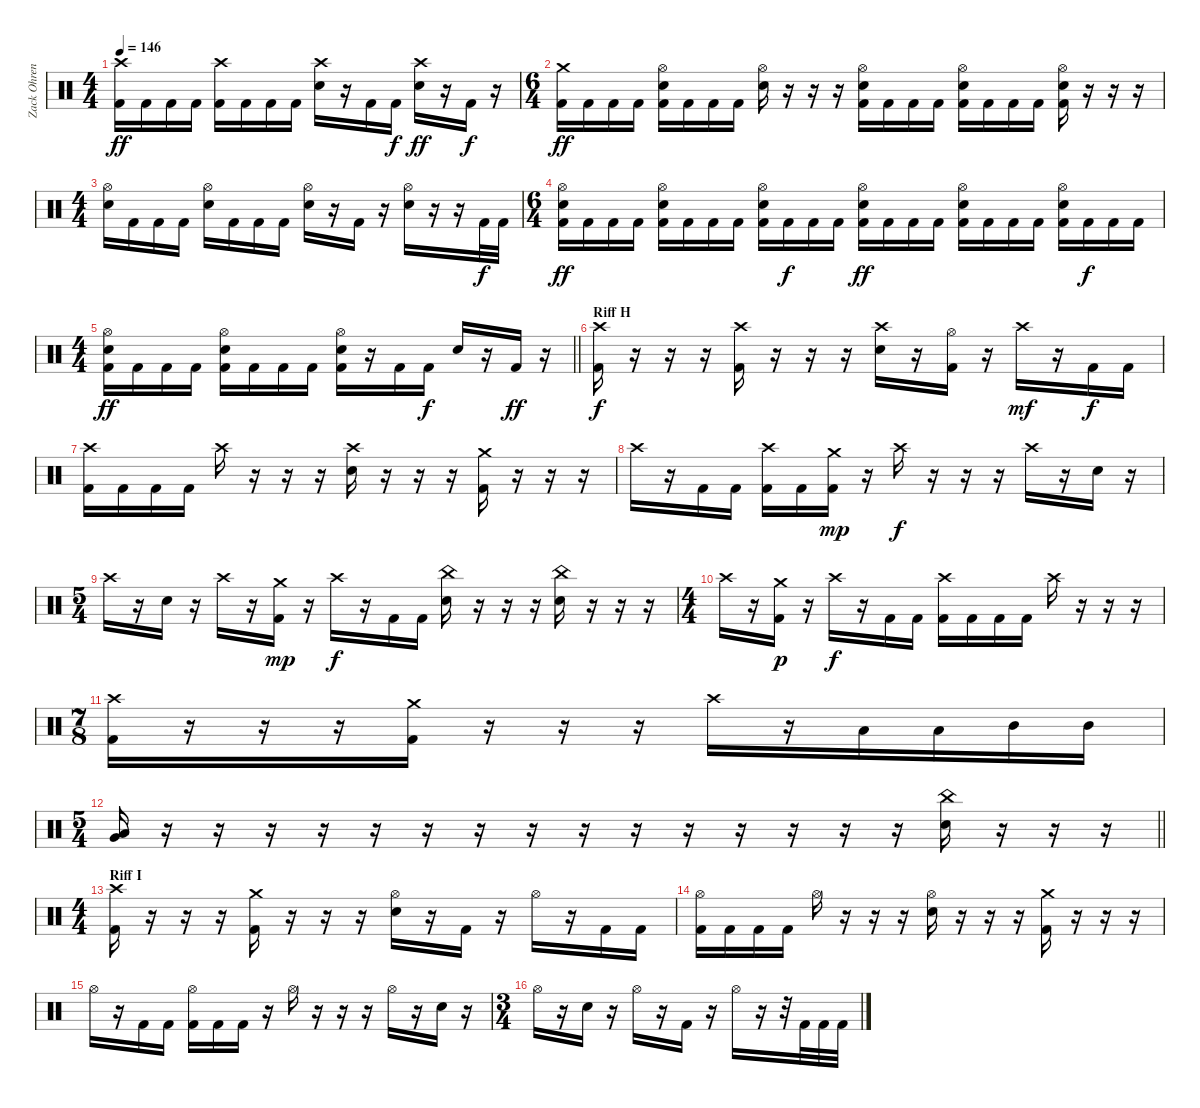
\track ("Zack Ohren" "Zack Ohren") {instrument percussion}
\staff {score}
\articulation defaults
\ts (4 4)
\tempo 146
\clef neutral
\ks c
("Crash high (hit)" "Kick (hit) 2").16{dy ff} "Kick (hit) 2".16 "Kick (hit) 2".16 "Kick (hit) 2".16 ("Crash high (hit)" "Kick (hit) 2").16 "Kick (hit) 2".16 "Kick (hit) 2".16 "Kick (hit) 2".16 ("Crash high (hit)" "Electric Snare (hit)").16 r.16 "Kick (hit) 2".16 "Kick (hit) 2".16{dy f} ("Crash high (hit)" "Electric Snare (hit)").16{dy ff} r.16 "Kick (hit) 2".16{dy f} r.16 |
\ts (6 4)
("Crash medium (hit)" "Kick (hit) 2").16{dy ff} "Kick (hit) 2".16 "Kick (hit) 2".16 "Kick (hit) 2".16 ("Hi-Hat (open)" "Electric Snare (hit)" "Kick (hit) 2").16 "Kick (hit) 2".16 "Kick (hit) 2".16 "Kick (hit) 2".16 ("Hi-Hat (open)" "Electric Snare (hit)").16 r.16 r.16 r.16 ("Hi-Hat (open)" "Electric Snare (hit)" "Kick (hit) 2").16 "Kick (hit) 2".16 "Kick (hit) 2".16 "Kick (hit) 2".16 ("Hi-Hat (open)" "Electric Snare (hit)" "Kick (hit) 2").16 "Kick (hit) 2".16 "Kick (hit) 2".16 "Kick (hit) 2".16 ("Hi-Hat (open)" "Electric Snare (hit)" "Kick (hit) 2").16 r.16 r.16 r.16 |
\ts (4 4)
("Hi-Hat (open)" "Electric Snare (hit)").16 "Kick (hit) 2".16 "Kick (hit) 2".16 "Kick (hit) 2".16 ("Hi-Hat (open)" "Electric Snare (hit)").16 "Kick (hit) 2".16 "Kick (hit) 2".16 "Kick (hit) 2".16 ("Hi-Hat (open)" "Electric Snare (hit)").16 r.16 "Kick (hit) 2".16 r.16 ("Hi-Hat (open)" "Electric Snare (hit)").16 r.16 r.16 "Kick (hit) 2".32{dy f} "Kick (hit) 2".32 |
\ts (6 4)
("Hi-Hat (open)" "Electric Snare (hit)" "Kick (hit) 2").16{dy ff} "Kick (hit) 2".16 "Kick (hit) 2".16 "Kick (hit) 2".16 ("Hi-Hat (open)" "Electric Snare (hit)" "Kick (hit) 2").16 "Kick (hit) 2".16 "Kick (hit) 2".16 "Kick (hit) 2".16 ("Hi-Hat (open)" "Electric Snare (hit)" "Kick (hit) 2").16 "Kick (hit) 2".16{dy f} "Kick (hit) 2".16 "Kick (hit) 2".16 ("Hi-Hat (open)" "Electric Snare (hit)" "Kick (hit) 2").16{dy ff} "Kick (hit) 2".16 "Kick (hit) 2".16 "Kick (hit) 2".16 ("Hi-Hat (open)" "Electric Snare (hit)" "Kick (hit) 2").16 "Kick (hit) 2".16 "Kick (hit) 2".16 "Kick (hit) 2".16 ("Hi-Hat (open)" "Electric Snare (hit)" "Kick (hit) 2").16 "Kick (hit) 2".16{dy f} "Kick (hit) 2".16 "Kick (hit) 2".16 |
\ts (4 4)
\barLineRight lightlight
("Hi-Hat (open)" "Electric Snare (hit)" "Kick (hit) 2").16{dy ff} "Kick (hit) 2".16 "Kick (hit) 2".16 "Kick (hit) 2".16 ("Hi-Hat (open)" "Electric Snare (hit)" "Kick (hit) 2").16 "Kick (hit) 2".16 "Kick (hit) 2".16 "Kick (hit) 2".16 ("Hi-Hat (open)" "Electric Snare (hit)" "Kick (hit) 2").16 r.16 "Kick (hit) 2".16 "Kick (hit) 2".16{dy f} "Electric Snare (hit)".16 r.16 "Kick (hit) 2".16{dy ff} r.16 |
\section ("" "Riff H")
("Kick (hit) 2" "Crash high (hit)").16{dy f} r.16 r.16 r.16 ("Kick (hit) 2" "Crash high (hit)").16 r.16 r.16 r.16 ("Electric Snare (hit)" "Crash high (hit)").16 r.16 ("Kick (hit) 2" "Hi-Hat (open)").16 r.16 "Crash high (hit)".16{dy mf} r.16 "Kick (hit) 2".16{dy f} "Kick (hit) 2".16 |
("Kick (hit) 2" "Crash high (hit)").16 "Kick (hit) 2".16 "Kick (hit) 2".16 "Kick (hit) 2".16 "Crash high (hit)".16 r.16 r.16 r.16 ("Electric Snare (hit)" "Crash high (hit)").16 r.16 r.16 r.16 ("Kick (hit) 2" "Crash medium (hit)").16 r.16 r.16 r.16 |
"Crash high (hit)".16 r.16 "Kick (hit) 2".16 "Kick (hit) 2".16 ("Kick (hit) 2" "Crash high (hit)").16 "Kick (hit) 2".16 ("Kick (hit) 2" "Crash medium (hit)").16{dy mp} r.16 "Crash high (hit)".16{dy f} r.16 r.16 r.16 "Crash high (hit)".16 r.16 "Electric Snare (hit)".16 r.16 |
\ts (5 4)
"Crash high (hit)".16 r.16 "Electric Snare (hit)".16 r.16 "Crash high (hit)".16 r.16 ("Kick (hit) 2" "Crash medium (hit)").16{dy mp} r.16 "Crash high (hit)".16{dy f} r.16 "Kick (hit) 2".16 "Kick (hit) 2".16 ("Electric Snare (hit)" "China (hit)").16 r.16 r.16 r.16 ("Electric Snare (hit)" "China (hit)").16 r.16 r.16 r.16 |
\ts (4 4)
"Crash high (hit)".16 r.16 ("Kick (hit) 2" "Crash medium (hit)").16{dy p} r.16 "Crash high (hit)".16{dy f} r.16 "Kick (hit) 2".16 "Kick (hit) 2".16 ("Kick (hit) 2" "Crash high (hit)").16 "Kick (hit) 2".16 "Kick (hit) 2".16 "Kick (hit) 2".16 "Crash high (hit)".16 r.16 r.16 r.16 |
\ts (7 8)
("Kick (hit) 2" "Crash high (hit)").16 r.16 r.16 r.16 ("Kick (hit) 2" "Crash medium (hit)").16 r.16 r.16 r.16 "Crash high (hit)".16 r.16 "Low Tom (hit)".16 "Low Tom (hit)".16 "Mid Tom (hit)".16 "Mid Tom (hit)".16 |
\ts (5 4)
\barLineRight lightlight
("Very Low Tom (hit)" "Low Floor Tom (hit)").16 r.16 r.16 r.16 r.16 r.16 r.16 r.16 r.16 r.16 r.16 r.16 r.16 r.16 r.16 r.16 ("Electric Snare (hit)" "China (hit)").16 r.16 r.16 r.16 |
\ts (4 4)
\section ("" "Riff I")
("Kick (hit) 2" "Crash high (hit)").16 r.16 r.16 r.16 ("Kick (hit) 2" "Crash medium (hit)").16 r.16 r.16 r.16 ("Electric Snare (hit)" "Hi-Hat (open)").16 r.16 "Kick (hit) 2".16 r.16 "Hi-Hat (open)".16 r.16 "Kick (hit) 2".16 "Kick (hit) 2".16 |
("Kick (hit) 2" "Hi-Hat (open)").16 "Kick (hit) 2".16 "Kick (hit) 2".16 "Kick (hit) 2".16 "Hi-Hat (open)".16 r.16 r.16 r.16 ("Electric Snare (hit)" "Hi-Hat (open)").16 r.16 r.16 r.16 ("Kick (hit) 2" "Crash medium (hit)").16 r.16 r.16 r.16 |
"Hi-Hat (open)".16 r.16 "Kick (hit) 2".16 "Kick (hit) 2".16 ("Kick (hit) 2" "Hi-Hat (open)").16 "Kick (hit) 2".16 "Kick (hit) 2".16 r.16 "Hi-Hat (open)".16 r.16 r.16 r.16 "Hi-Hat (open)".16 r.16 "Electric Snare (hit)".16 r.16 |
\ts (3 4)
"Hi-Hat (open)".16 r.16 "Electric Snare (hit)".16 r.16 "Hi-Hat (open)".16 r.16 "Kick (hit) 2".16 r.16 "Hi-Hat (open)".16 r.16 r.32 "Kick (hit) 2".32 "Kick (hit) 2".32 "Kick (hit) 2".32
